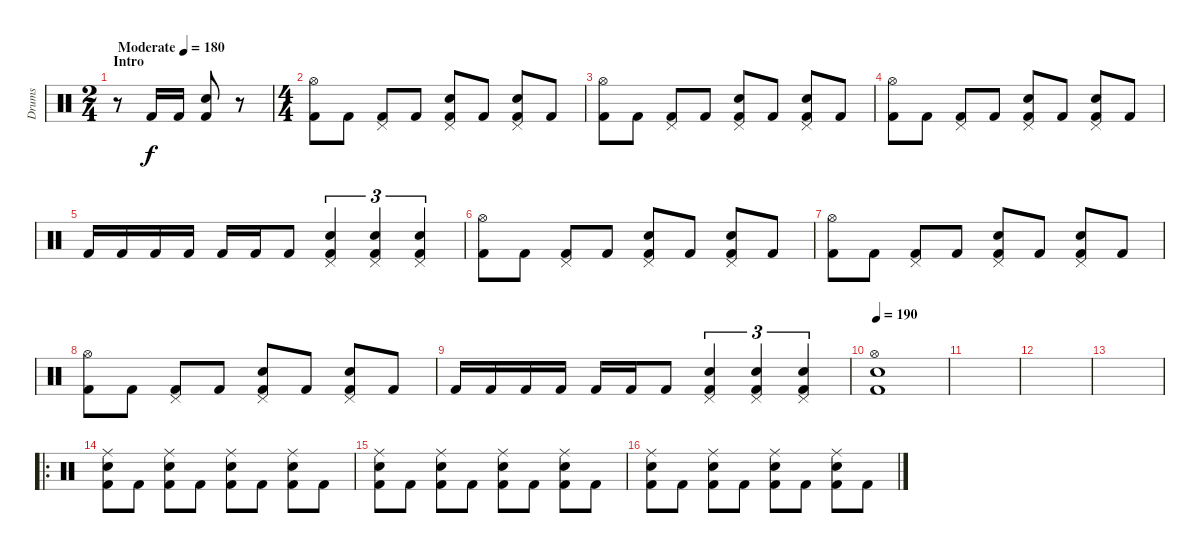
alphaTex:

\track ("Drums" "Drums") {instrument percussion}
\staff {score}
\articulation defaults
\ts (2 4)
\section ("" "Intro")
\tempo (180 "Moderate")
\clef neutral
\ks c
r.8{dy f} "Kick (hit) 2".16 "Kick (hit) 2".16 ("Snare (hit) 2" "Kick (hit) 2").8 r.8 |
\ts (4 4)
("Hi-Hat (open)" "Kick (hit) 2").8 "Kick (hit) 2".8 ("Pedal Hi-Hat (hit)" "Kick (hit) 2").8 "Kick (hit) 2".8 ("Pedal Hi-Hat (hit)" "Snare (hit) 2" "Kick (hit) 2").8 "Kick (hit) 2".8 ("Pedal Hi-Hat (hit)" "Snare (hit) 2" "Kick (hit) 2").8 "Kick (hit) 2".8 |
("Hi-Hat (open)" "Kick (hit) 2").8 "Kick (hit) 2".8 ("Pedal Hi-Hat (hit)" "Kick (hit) 2").8 "Kick (hit) 2".8 ("Pedal Hi-Hat (hit)" "Snare (hit) 2" "Kick (hit) 2").8 "Kick (hit) 2".8 ("Pedal Hi-Hat (hit)" "Snare (hit) 2" "Kick (hit) 2").8 "Kick (hit) 2".8 |
("Hi-Hat (open)" "Kick (hit) 2").8 "Kick (hit) 2".8 ("Pedal Hi-Hat (hit)" "Kick (hit) 2").8 "Kick (hit) 2".8 ("Pedal Hi-Hat (hit)" "Snare (hit) 2" "Kick (hit) 2").8 "Kick (hit) 2".8 ("Pedal Hi-Hat (hit)" "Snare (hit) 2" "Kick (hit) 2").8 "Kick (hit) 2".8 |
"Kick (hit) 2".16 "Kick (hit) 2".16 "Kick (hit) 2".16 "Kick (hit) 2".16 "Kick (hit) 2".16 "Kick (hit) 2".16 "Kick (hit) 2".8 ("Pedal Hi-Hat (hit)" "Snare (hit) 2" "Kick (hit) 2").4{tu (3 2)} ("Pedal Hi-Hat (hit)" "Snare (hit) 2" "Kick (hit) 2").4{tu (3 2)} ("Pedal Hi-Hat (hit)" "Snare (hit) 2" "Kick (hit) 2").4{tu (3 2)} |
("Hi-Hat (open)" "Kick (hit) 2").8 "Kick (hit) 2".8 ("Pedal Hi-Hat (hit)" "Kick (hit) 2").8 "Kick (hit) 2".8 ("Pedal Hi-Hat (hit)" "Snare (hit) 2" "Kick (hit) 2").8 "Kick (hit) 2".8 ("Pedal Hi-Hat (hit)" "Snare (hit) 2" "Kick (hit) 2").8 "Kick (hit) 2".8 |
("Hi-Hat (open)" "Kick (hit) 2").8 "Kick (hit) 2".8 ("Pedal Hi-Hat (hit)" "Kick (hit) 2").8 "Kick (hit) 2".8 ("Pedal Hi-Hat (hit)" "Snare (hit) 2" "Kick (hit) 2").8 "Kick (hit) 2".8 ("Pedal Hi-Hat (hit)" "Snare (hit) 2" "Kick (hit) 2").8 "Kick (hit) 2".8 |
("Hi-Hat (open)" "Kick (hit) 2").8 "Kick (hit) 2".8 ("Pedal Hi-Hat (hit)" "Kick (hit) 2").8 "Kick (hit) 2".8 ("Pedal Hi-Hat (hit)" "Snare (hit) 2" "Kick (hit) 2").8 "Kick (hit) 2".8 ("Pedal Hi-Hat (hit)" "Snare (hit) 2" "Kick (hit) 2").8 "Kick (hit) 2".8 |
"Kick (hit) 2".16 "Kick (hit) 2".16 "Kick (hit) 2".16 "Kick (hit) 2".16 "Kick (hit) 2".16 "Kick (hit) 2".16 "Kick (hit) 2".8 ("Pedal Hi-Hat (hit)" "Snare (hit) 2" "Kick (hit) 2").4{tu (3 2)} ("Pedal Hi-Hat (hit)" "Snare (hit) 2" "Kick (hit) 2").4{tu (3 2)} ("Pedal Hi-Hat (hit)" "Snare (hit) 2" "Kick (hit) 2").4{tu (3 2)} |
\tempo 190
("Hi-Hat (open)" "Snare (hit) 2" "Kick (hit) 2").1 |
|
|
|
\ro
("Ride (middle)" "Snare (hit) 2" "Kick (hit) 2").8 "Kick (hit) 2".8 ("Ride (middle)" "Snare (hit) 2" "Kick (hit) 2").8 "Kick (hit) 2".8 ("Ride (middle)" "Snare (hit) 2" "Kick (hit) 2").8 "Kick (hit) 2".8 ("Ride (middle)" "Snare (hit) 2" "Kick (hit) 2").8 "Kick (hit) 2".8 |
("Ride (middle)" "Snare (hit) 2" "Kick (hit) 2").8 "Kick (hit) 2".8 ("Ride (middle)" "Snare (hit) 2" "Kick (hit) 2").8 "Kick (hit) 2".8 ("Ride (middle)" "Snare (hit) 2" "Kick (hit) 2").8 "Kick (hit) 2".8 ("Ride (middle)" "Snare (hit) 2" "Kick (hit) 2").8 "Kick (hit) 2".8 |
("Ride (middle)" "Snare (hit) 2" "Kick (hit) 2").8 "Kick (hit) 2".8 ("Ride (middle)" "Snare (hit) 2" "Kick (hit) 2").8 "Kick (hit) 2".8 ("Ride (middle)" "Snare (hit) 2" "Kick (hit) 2").8 "Kick (hit) 2".8 ("Ride (middle)" "Snare (hit) 2" "Kick (hit) 2").8 "Kick (hit) 2".8
